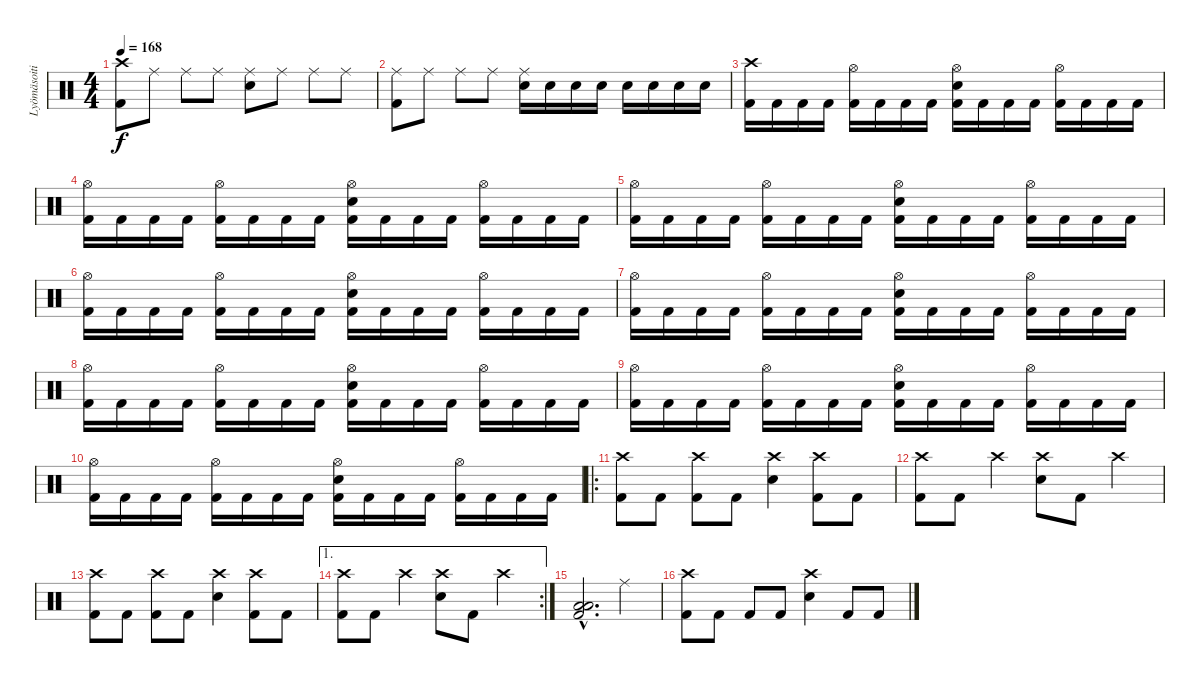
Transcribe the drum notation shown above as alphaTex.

\track ("Lyömäsoitin" "Lyömäsoiti") {instrument percussion}
\staff {score}
\articulation defaults
\ts (4 4)
\tempo 168
\clef neutral
\ks c
("Kick (hit) 2" "Crash high (hit)").8{dy f} "Ride (middle)".8 "Ride (middle)".8 "Ride (middle)".8 ("Electric Snare (hit)" "Ride (middle)").8 "Ride (middle)".8 "Ride (middle)".8 "Ride (middle)".8 |
("Kick (hit) 2" "Ride (middle)").8 "Ride (middle)".8 "Ride (middle)".8 "Ride (middle)".8 ("Electric Snare (hit)" "Ride (middle)").16 "Electric Snare (hit)".16 "Electric Snare (hit)".16 "Electric Snare (hit)".16 "Electric Snare (hit)".16 "Electric Snare (hit)".16 "Electric Snare (hit)".16 "Electric Snare (hit)".16 |
("Kick (hit) 2" "Crash high (hit)").16 "Kick (hit) 2".16 "Kick (hit) 2".16 "Kick (hit) 2".16 ("Kick (hit) 2" "Hi-Hat (open)").16 "Kick (hit) 2".16 "Kick (hit) 2".16 "Kick (hit) 2".16 ("Kick (hit) 2" "Electric Snare (hit)" "Hi-Hat (open)").16 "Kick (hit) 2".16 "Kick (hit) 2".16 "Kick (hit) 2".16 ("Kick (hit) 2" "Hi-Hat (open)").16 "Kick (hit) 2".16 "Kick (hit) 2".16 "Kick (hit) 2".16 |
("Kick (hit) 2" "Hi-Hat (open)").16 "Kick (hit) 2".16 "Kick (hit) 2".16 "Kick (hit) 2".16 ("Kick (hit) 2" "Hi-Hat (open)").16 "Kick (hit) 2".16 "Kick (hit) 2".16 "Kick (hit) 2".16 ("Kick (hit) 2" "Electric Snare (hit)" "Hi-Hat (open)").16 "Kick (hit) 2".16 "Kick (hit) 2".16 "Kick (hit) 2".16 ("Kick (hit) 2" "Hi-Hat (open)").16 "Kick (hit) 2".16 "Kick (hit) 2".16 "Kick (hit) 2".16 |
("Kick (hit) 2" "Hi-Hat (open)").16 "Kick (hit) 2".16 "Kick (hit) 2".16 "Kick (hit) 2".16 ("Kick (hit) 2" "Hi-Hat (open)").16 "Kick (hit) 2".16 "Kick (hit) 2".16 "Kick (hit) 2".16 ("Kick (hit) 2" "Electric Snare (hit)" "Hi-Hat (open)").16 "Kick (hit) 2".16 "Kick (hit) 2".16 "Kick (hit) 2".16 ("Kick (hit) 2" "Hi-Hat (open)").16 "Kick (hit) 2".16 "Kick (hit) 2".16 "Kick (hit) 2".16 |
("Kick (hit) 2" "Hi-Hat (open)").16 "Kick (hit) 2".16 "Kick (hit) 2".16 "Kick (hit) 2".16 ("Kick (hit) 2" "Hi-Hat (open)").16 "Kick (hit) 2".16 "Kick (hit) 2".16 "Kick (hit) 2".16 ("Kick (hit) 2" "Electric Snare (hit)" "Hi-Hat (open)").16 "Kick (hit) 2".16 "Kick (hit) 2".16 "Kick (hit) 2".16 ("Kick (hit) 2" "Hi-Hat (open)").16 "Kick (hit) 2".16 "Kick (hit) 2".16 "Kick (hit) 2".16 |
("Kick (hit) 2" "Hi-Hat (open)").16 "Kick (hit) 2".16 "Kick (hit) 2".16 "Kick (hit) 2".16 ("Kick (hit) 2" "Hi-Hat (open)").16 "Kick (hit) 2".16 "Kick (hit) 2".16 "Kick (hit) 2".16 ("Kick (hit) 2" "Electric Snare (hit)" "Hi-Hat (open)").16 "Kick (hit) 2".16 "Kick (hit) 2".16 "Kick (hit) 2".16 ("Kick (hit) 2" "Hi-Hat (open)").16 "Kick (hit) 2".16 "Kick (hit) 2".16 "Kick (hit) 2".16 |
("Kick (hit) 2" "Hi-Hat (open)").16 "Kick (hit) 2".16 "Kick (hit) 2".16 "Kick (hit) 2".16 ("Kick (hit) 2" "Hi-Hat (open)").16 "Kick (hit) 2".16 "Kick (hit) 2".16 "Kick (hit) 2".16 ("Kick (hit) 2" "Electric Snare (hit)" "Hi-Hat (open)").16 "Kick (hit) 2".16 "Kick (hit) 2".16 "Kick (hit) 2".16 ("Kick (hit) 2" "Hi-Hat (open)").16 "Kick (hit) 2".16 "Kick (hit) 2".16 "Kick (hit) 2".16 |
("Kick (hit) 2" "Hi-Hat (open)").16 "Kick (hit) 2".16 "Kick (hit) 2".16 "Kick (hit) 2".16 ("Kick (hit) 2" "Hi-Hat (open)").16 "Kick (hit) 2".16 "Kick (hit) 2".16 "Kick (hit) 2".16 ("Kick (hit) 2" "Electric Snare (hit)" "Hi-Hat (open)").16 "Kick (hit) 2".16 "Kick (hit) 2".16 "Kick (hit) 2".16 ("Kick (hit) 2" "Hi-Hat (open)").16 "Kick (hit) 2".16 "Kick (hit) 2".16 "Kick (hit) 2".16 |
("Kick (hit) 2" "Hi-Hat (open)").16 "Kick (hit) 2".16 "Kick (hit) 2".16 "Kick (hit) 2".16 ("Kick (hit) 2" "Hi-Hat (open)").16 "Kick (hit) 2".16 "Kick (hit) 2".16 "Kick (hit) 2".16 ("Kick (hit) 2" "Electric Snare (hit)" "Hi-Hat (open)").16 "Kick (hit) 2".16 "Kick (hit) 2".16 "Kick (hit) 2".16 ("Kick (hit) 2" "Hi-Hat (open)").16 "Kick (hit) 2".16 "Kick (hit) 2".16 "Kick (hit) 2".16 |
\ro
("Kick (hit) 2" "Crash high (hit)").8 "Kick (hit) 2".8 ("Kick (hit) 2" "Crash high (hit)").8 "Kick (hit) 2".8 ("Electric Snare (hit)" "Crash high (hit)").4 ("Kick (hit) 2" "Crash high (hit)").8 "Kick (hit) 2".8 |
("Kick (hit) 2" "Crash high (hit)").8 "Kick (hit) 2".8 "Crash high (hit)".4 ("Electric Snare (hit)" "Crash high (hit)").8 "Kick (hit) 2".8 "Crash high (hit)".4 |
("Kick (hit) 2" "Crash high (hit)").8 "Kick (hit) 2".8 ("Kick (hit) 2" "Crash high (hit)").8 "Kick (hit) 2".8 ("Electric Snare (hit)" "Crash high (hit)").4 ("Kick (hit) 2" "Crash high (hit)").8 "Kick (hit) 2".8 |
\ae 1
\rc 2
("Kick (hit) 2" "Crash high (hit)").8 "Kick (hit) 2".8 "Crash high (hit)".4 ("Electric Snare (hit)" "Crash high (hit)").8 "Kick (hit) 2".8 "Crash high (hit)".4 |
("Kick (hit) 2"{hac} "Low Floor Tom (hit)"{hac} "Low Tom (hit)"{hac}).2{d} "Ride (middle)".4 |
("Kick (hit) 2" "Crash high (hit)").8 "Kick (hit) 2".8 "Kick (hit) 2".8 "Kick (hit) 2".8 ("Electric Snare (hit)" "Crash high (hit)").4 "Kick (hit) 2".8 "Kick (hit) 2".8
